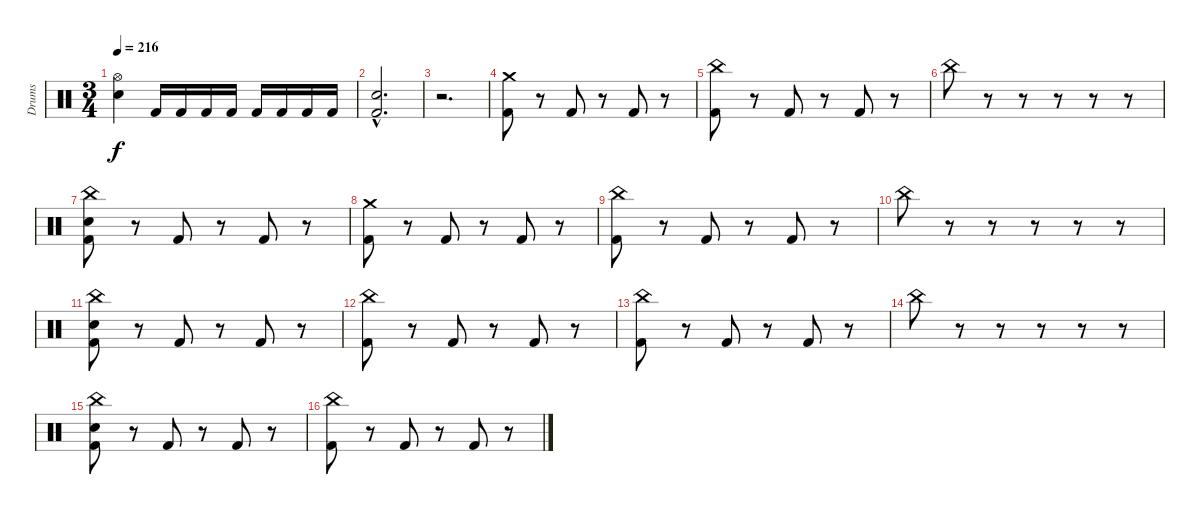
\track ("Drums" "Drums") {instrument percussion}
\staff {score}
\articulation defaults
\ts (3 4)
\tempo 216
\clef neutral
\ks c
("Hi-Hat (open)" "Electric Snare (hit)").4{dy f} "Kick (hit) 2".16 "Kick (hit) 2".16 "Kick (hit) 2".16 "Kick (hit) 2".16 "Kick (hit) 2".16 "Kick (hit) 2".16 "Kick (hit) 2".16 "Kick (hit) 2".16 |
("Electric Snare (hit)"{hac} "Kick (hit) 2"{hac}).2{d} |
r.2{d} |
("Crash medium (hit)" "Kick (hit) 2").8 r.8 "Kick (hit) 2".8 r.8 "Kick (hit) 2".8 r.8 |
("China (hit)" "Kick (hit) 2").8 r.8 "Kick (hit) 2".8 r.8 "Kick (hit) 2".8 r.8 |
"China (hit)".8 r.8 r.8 r.8 r.8 r.8 |
("China (hit)" "Electric Snare (hit)" "Kick (hit) 2").8 r.8 "Kick (hit) 2".8 r.8 "Kick (hit) 2".8 r.8 |
("Crash medium (hit)" "Kick (hit) 2").8 r.8 "Kick (hit) 2".8 r.8 "Kick (hit) 2".8 r.8 |
("China (hit)" "Kick (hit) 2").8 r.8 "Kick (hit) 2".8 r.8 "Kick (hit) 2".8 r.8 |
"China (hit)".8 r.8 r.8 r.8 r.8 r.8 |
("China (hit)" "Electric Snare (hit)" "Kick (hit) 2").8 r.8 "Kick (hit) 2".8 r.8 "Kick (hit) 2".8 r.8 |
("China (hit)" "Kick (hit) 2").8 r.8 "Kick (hit) 2".8 r.8 "Kick (hit) 2".8 r.8 |
("China (hit)" "Kick (hit) 2").8 r.8 "Kick (hit) 2".8 r.8 "Kick (hit) 2".8 r.8 |
"China (hit)".8 r.8 r.8 r.8 r.8 r.8 |
("China (hit)" "Electric Snare (hit)" "Kick (hit) 2").8 r.8 "Kick (hit) 2".8 r.8 "Kick (hit) 2".8 r.8 |
("China (hit)" "Kick (hit) 2").8 r.8 "Kick (hit) 2".8 r.8 "Kick (hit) 2".8 r.8
